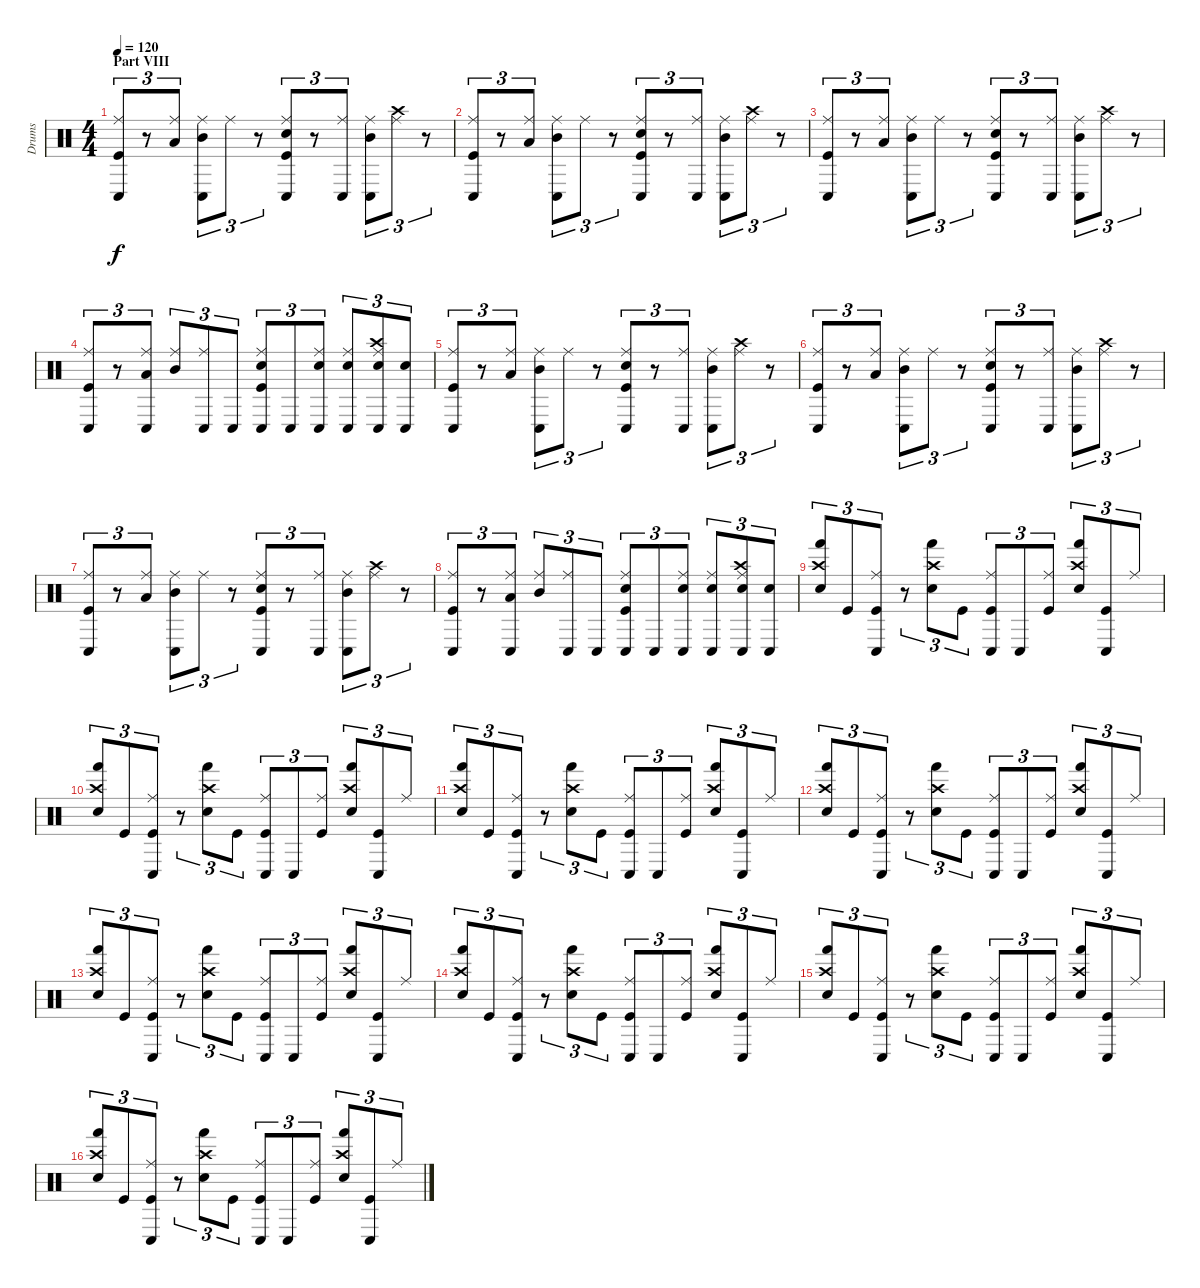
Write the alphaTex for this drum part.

\track ("Drums" "Drums") {instrument percussion}
\staff {score}
\articulation defaults
\ts (4 4)
\section ("" "Part VIII")
\tempo 120
\clef neutral
\ks c
("Kick (hit)" "Ride (middle)" "Conga low (hit)").8{tu (3 2) dy f} r.8{tu (3 2)} ("Low Floor Tom (hit)" "Ride (middle)").8{tu (3 2)} ("Mid Tom (hit)" "Ride (middle)" "Conga low (hit)").8{tu (3 2)} "Ride (middle)".8{tu (3 2)} r.8{tu (3 2)} ("Kick (hit)" "Snare (hit) 2" "Ride (middle)" "Conga low (hit)").8{tu (3 2)} r.8{tu (3 2)} ("Ride (middle)" "Conga low (hit)").8{tu (3 2)} ("Mid Tom (hit)" "Ride (middle)" "Conga low (hit)").8{tu (3 2)} ("Ride (middle)" "Crash high (hit)").8{tu (3 2)} r.8{tu (3 2)} |
("Kick (hit)" "Ride (middle)" "Conga low (hit)").8{tu (3 2)} r.8{tu (3 2)} ("Low Floor Tom (hit)" "Ride (middle)").8{tu (3 2)} ("Mid Tom (hit)" "Ride (middle)" "Conga low (hit)").8{tu (3 2)} "Ride (middle)".8{tu (3 2)} r.8{tu (3 2)} ("Kick (hit)" "Snare (hit) 2" "Ride (middle)" "Conga low (hit)").8{tu (3 2)} r.8{tu (3 2)} ("Ride (middle)" "Conga low (hit)").8{tu (3 2)} ("Mid Tom (hit)" "Ride (middle)" "Conga low (hit)").8{tu (3 2)} ("Ride (middle)" "Crash high (hit)").8{tu (3 2)} r.8{tu (3 2)} |
("Kick (hit)" "Ride (middle)" "Conga low (hit)").8{tu (3 2)} r.8{tu (3 2)} ("Low Floor Tom (hit)" "Ride (middle)").8{tu (3 2)} ("Mid Tom (hit)" "Ride (middle)" "Conga low (hit)").8{tu (3 2)} "Ride (middle)".8{tu (3 2)} r.8{tu (3 2)} ("Kick (hit)" "Snare (hit) 2" "Ride (middle)" "Conga low (hit)").8{tu (3 2)} r.8{tu (3 2)} ("Ride (middle)" "Conga low (hit)").8{tu (3 2)} ("Mid Tom (hit)" "Ride (middle)" "Conga low (hit)").8{tu (3 2)} ("Ride (middle)" "Crash high (hit)").8{tu (3 2)} r.8{tu (3 2)} |
("Kick (hit)" "Ride (middle)" "Conga low (hit)").8{tu (3 2)} r.8{tu (3 2)} ("Low Floor Tom (hit)" "Ride (middle)" "Conga low (hit)").8{tu (3 2)} ("Mid Tom (hit)" "Ride (middle)").8{tu (3 2)} ("Ride (middle)" "Conga low (hit)").8{tu (3 2)} "Conga low (hit)".8{tu (3 2)} ("Kick (hit)" "Snare (hit) 2" "Ride (middle)" "Conga low (hit)").8{tu (3 2)} "Conga low (hit)".8{tu (3 2)} ("Snare (hit) 2" "Ride (middle)" "Conga low (hit)").8{tu (3 2)} ("Snare (hit) 2" "Ride (middle)" "Conga low (hit)").8{tu (3 2)} ("Snare (hit) 2" "Ride (middle)" "Crash high (hit)" "Conga low (hit)").8{tu (3 2)} ("Snare (hit) 2" "Conga low (hit)").8{tu (3 2)} |
("Kick (hit)" "Ride (middle)" "Conga low (hit)").8{tu (3 2)} r.8{tu (3 2)} ("Low Floor Tom (hit)" "Ride (middle)").8{tu (3 2)} ("Mid Tom (hit)" "Ride (middle)" "Conga low (hit)").8{tu (3 2)} "Ride (middle)".8{tu (3 2)} r.8{tu (3 2)} ("Kick (hit)" "Snare (hit) 2" "Ride (middle)" "Conga low (hit)").8{tu (3 2)} r.8{tu (3 2)} ("Ride (middle)" "Conga low (hit)").8{tu (3 2)} ("Mid Tom (hit)" "Ride (middle)" "Conga low (hit)").8{tu (3 2)} ("Ride (middle)" "Crash high (hit)").8{tu (3 2)} r.8{tu (3 2)} |
("Kick (hit)" "Ride (middle)" "Conga low (hit)").8{tu (3 2)} r.8{tu (3 2)} ("Low Floor Tom (hit)" "Ride (middle)").8{tu (3 2)} ("Mid Tom (hit)" "Ride (middle)" "Conga low (hit)").8{tu (3 2)} "Ride (middle)".8{tu (3 2)} r.8{tu (3 2)} ("Kick (hit)" "Snare (hit) 2" "Ride (middle)" "Conga low (hit)").8{tu (3 2)} r.8{tu (3 2)} ("Ride (middle)" "Conga low (hit)").8{tu (3 2)} ("Mid Tom (hit)" "Ride (middle)" "Conga low (hit)").8{tu (3 2)} ("Ride (middle)" "Crash high (hit)").8{tu (3 2)} r.8{tu (3 2)} |
("Kick (hit)" "Ride (middle)" "Conga low (hit)").8{tu (3 2)} r.8{tu (3 2)} ("Low Floor Tom (hit)" "Ride (middle)").8{tu (3 2)} ("Mid Tom (hit)" "Ride (middle)" "Conga low (hit)").8{tu (3 2)} "Ride (middle)".8{tu (3 2)} r.8{tu (3 2)} ("Kick (hit)" "Snare (hit) 2" "Ride (middle)" "Conga low (hit)").8{tu (3 2)} r.8{tu (3 2)} ("Ride (middle)" "Conga low (hit)").8{tu (3 2)} ("Mid Tom (hit)" "Ride (middle)" "Conga low (hit)").8{tu (3 2)} ("Ride (middle)" "Crash high (hit)").8{tu (3 2)} r.8{tu (3 2)} |
("Kick (hit)" "Ride (middle)" "Conga low (hit)").8{tu (3 2)} r.8{tu (3 2)} ("Low Floor Tom (hit)" "Ride (middle)" "Conga low (hit)").8{tu (3 2)} ("Mid Tom (hit)" "Ride (middle)").8{tu (3 2)} ("Ride (middle)" "Conga low (hit)").8{tu (3 2)} "Conga low (hit)".8{tu (3 2)} ("Kick (hit)" "Snare (hit) 2" "Ride (middle)" "Conga low (hit)").8{tu (3 2)} "Conga low (hit)".8{tu (3 2)} ("Snare (hit) 2" "Ride (middle)" "Conga low (hit)").8{tu (3 2)} ("Snare (hit) 2" "Ride (middle)" "Conga low (hit)").8{tu (3 2)} ("Snare (hit) 2" "Ride (middle)" "Crash high (hit)" "Conga low (hit)").8{tu (3 2)} ("Snare (hit) 2" "Conga low (hit)").8{tu (3 2)} |
("Snare (hit) 2" "Crash high (hit)" "Hand (hit)").8{tu (3 2)} "Kick (hit)".8{tu (3 2)} ("Kick (hit)" "Ride (middle)" "Conga low (hit)").8{tu (3 2)} r.8{tu (3 2)} ("Snare (hit) 2" "Crash high (hit)" "Hand (hit)").8{tu (3 2)} "Kick (hit)".8{tu (3 2)} ("Kick (hit)" "Ride (middle)" "Conga low (hit)").8{tu (3 2)} "Conga low (hit)".8{tu (3 2)} ("Kick (hit)" "Ride (middle)").8{tu (3 2)} ("Snare (hit) 2" "Crash high (hit)" "Hand (hit)").8{tu (3 2)} ("Kick (hit)" "Conga low (hit)").8{tu (3 2)} "Ride (middle)".8{tu (3 2)} |
("Snare (hit) 2" "Crash high (hit)" "Hand (hit)").8{tu (3 2)} "Kick (hit)".8{tu (3 2)} ("Kick (hit)" "Ride (middle)" "Conga low (hit)").8{tu (3 2)} r.8{tu (3 2)} ("Snare (hit) 2" "Crash high (hit)" "Hand (hit)").8{tu (3 2)} "Kick (hit)".8{tu (3 2)} ("Kick (hit)" "Ride (middle)" "Conga low (hit)").8{tu (3 2)} "Conga low (hit)".8{tu (3 2)} ("Kick (hit)" "Ride (middle)").8{tu (3 2)} ("Snare (hit) 2" "Crash high (hit)" "Hand (hit)").8{tu (3 2)} ("Kick (hit)" "Conga low (hit)").8{tu (3 2)} "Ride (middle)".8{tu (3 2)} |
("Snare (hit) 2" "Crash high (hit)" "Hand (hit)").8{tu (3 2)} "Kick (hit)".8{tu (3 2)} ("Kick (hit)" "Ride (middle)" "Conga low (hit)").8{tu (3 2)} r.8{tu (3 2)} ("Snare (hit) 2" "Crash high (hit)" "Hand (hit)").8{tu (3 2)} "Kick (hit)".8{tu (3 2)} ("Kick (hit)" "Ride (middle)" "Conga low (hit)").8{tu (3 2)} "Conga low (hit)".8{tu (3 2)} ("Kick (hit)" "Ride (middle)").8{tu (3 2)} ("Snare (hit) 2" "Crash high (hit)" "Hand (hit)").8{tu (3 2)} ("Kick (hit)" "Conga low (hit)").8{tu (3 2)} "Ride (middle)".8{tu (3 2)} |
("Snare (hit) 2" "Crash high (hit)" "Hand (hit)").8{tu (3 2)} "Kick (hit)".8{tu (3 2)} ("Kick (hit)" "Ride (middle)" "Conga low (hit)").8{tu (3 2)} r.8{tu (3 2)} ("Snare (hit) 2" "Crash high (hit)" "Hand (hit)").8{tu (3 2)} "Kick (hit)".8{tu (3 2)} ("Kick (hit)" "Ride (middle)" "Conga low (hit)").8{tu (3 2)} "Conga low (hit)".8{tu (3 2)} ("Kick (hit)" "Ride (middle)").8{tu (3 2)} ("Snare (hit) 2" "Crash high (hit)" "Hand (hit)").8{tu (3 2)} ("Kick (hit)" "Conga low (hit)").8{tu (3 2)} "Ride (middle)".8{tu (3 2)} |
("Snare (hit) 2" "Crash high (hit)" "Hand (hit)").8{tu (3 2)} "Kick (hit)".8{tu (3 2)} ("Kick (hit)" "Ride (middle)" "Conga low (hit)").8{tu (3 2)} r.8{tu (3 2)} ("Snare (hit) 2" "Crash high (hit)" "Hand (hit)").8{tu (3 2)} "Kick (hit)".8{tu (3 2)} ("Kick (hit)" "Ride (middle)" "Conga low (hit)").8{tu (3 2)} "Conga low (hit)".8{tu (3 2)} ("Kick (hit)" "Ride (middle)").8{tu (3 2)} ("Snare (hit) 2" "Crash high (hit)" "Hand (hit)").8{tu (3 2)} ("Kick (hit)" "Conga low (hit)").8{tu (3 2)} "Ride (middle)".8{tu (3 2)} |
("Snare (hit) 2" "Crash high (hit)" "Hand (hit)").8{tu (3 2)} "Kick (hit)".8{tu (3 2)} ("Kick (hit)" "Ride (middle)" "Conga low (hit)").8{tu (3 2)} r.8{tu (3 2)} ("Snare (hit) 2" "Crash high (hit)" "Hand (hit)").8{tu (3 2)} "Kick (hit)".8{tu (3 2)} ("Kick (hit)" "Ride (middle)" "Conga low (hit)").8{tu (3 2)} "Conga low (hit)".8{tu (3 2)} ("Kick (hit)" "Ride (middle)").8{tu (3 2)} ("Snare (hit) 2" "Crash high (hit)" "Hand (hit)").8{tu (3 2)} ("Kick (hit)" "Conga low (hit)").8{tu (3 2)} "Ride (middle)".8{tu (3 2)} |
("Snare (hit) 2" "Crash high (hit)" "Hand (hit)").8{tu (3 2)} "Kick (hit)".8{tu (3 2)} ("Kick (hit)" "Ride (middle)" "Conga low (hit)").8{tu (3 2)} r.8{tu (3 2)} ("Snare (hit) 2" "Crash high (hit)" "Hand (hit)").8{tu (3 2)} "Kick (hit)".8{tu (3 2)} ("Kick (hit)" "Ride (middle)" "Conga low (hit)").8{tu (3 2)} "Conga low (hit)".8{tu (3 2)} ("Kick (hit)" "Ride (middle)").8{tu (3 2)} ("Snare (hit) 2" "Crash high (hit)" "Hand (hit)").8{tu (3 2)} ("Kick (hit)" "Conga low (hit)").8{tu (3 2)} "Ride (middle)".8{tu (3 2)} |
("Snare (hit) 2" "Crash high (hit)" "Hand (hit)").8{tu (3 2)} "Kick (hit)".8{tu (3 2)} ("Kick (hit)" "Ride (middle)" "Conga low (hit)").8{tu (3 2)} r.8{tu (3 2)} ("Snare (hit) 2" "Crash high (hit)" "Hand (hit)").8{tu (3 2)} "Kick (hit)".8{tu (3 2)} ("Kick (hit)" "Ride (middle)" "Conga low (hit)").8{tu (3 2)} "Conga low (hit)".8{tu (3 2)} ("Kick (hit)" "Ride (middle)").8{tu (3 2)} ("Snare (hit) 2" "Crash high (hit)" "Hand (hit)").8{tu (3 2)} ("Kick (hit)" "Conga low (hit)").8{tu (3 2)} "Ride (middle)".8{tu (3 2)}
